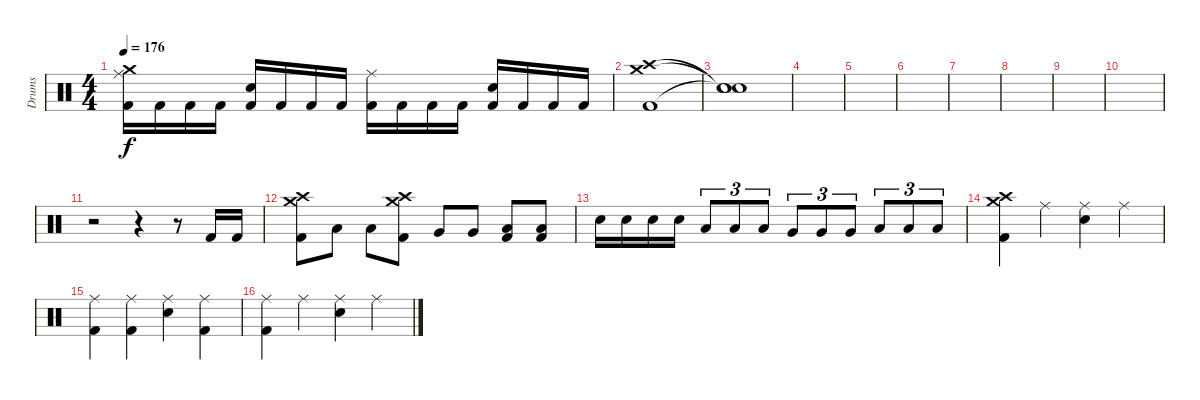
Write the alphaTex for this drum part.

\track ("Drums" "Drums") {instrument percussion}
\staff {score}
\articulation defaults
\ts (4 4)
\tempo 176
\clef neutral
\ks c
("Ride (middle)" "Crash medium (hit)" "Kick (hit) 2").16{dy f} "Kick (hit) 2".16 "Kick (hit) 2".16 "Kick (hit) 2".16 ("Snare (hit) 2" "Kick (hit) 2").16 "Kick (hit) 2".16 "Kick (hit) 2".16 "Kick (hit) 2".16 ("Ride (middle)" "Kick (hit) 2").16 "Kick (hit) 2".16 "Kick (hit) 2".16 "Kick (hit) 2".16 ("Snare (hit) 2" "Kick (hit) 2").16 "Kick (hit) 2".16 "Kick (hit) 2".16 "Kick (hit) 2".16 |
("Crash high (hit)" "Crash medium (hit)" "Kick (hit) 2").1 |
("Snare (hit)"{t} "Snare (hit)"{t} "Snare (hit)"{t}).1 |
|
|
|
|
|
|
|
r.2 r.4 r.8 "Kick (hit) 2".16 "Kick (hit) 2".16 |
("Crash high (hit)" "Crash medium (hit)" "Kick (hit) 2").8 "Low Tom (hit)".8 "Low Tom (hit)".8 ("Crash high (hit)" "Crash medium (hit)" "Kick (hit) 2").8 "Very Low Tom (hit)".8 "Very Low Tom (hit)".8 ("Low Floor Tom (hit)" "Kick (hit) 2").8 ("Low Floor Tom (hit)" "Kick (hit) 2").8 |
"Snare (hit) 2".16 "Snare (hit) 2".16 "Snare (hit) 2".16 "Snare (hit) 2".16 "Low Tom (hit)".8{tu (3 2)} "Low Tom (hit)".8{tu (3 2)} "Low Tom (hit)".8{tu (3 2)} "Very Low Tom (hit)".8{tu (3 2)} "Very Low Tom (hit)".8{tu (3 2)} "Very Low Tom (hit)".8{tu (3 2)} "Low Floor Tom (hit)".8{tu (3 2)} "Low Floor Tom (hit)".8{tu (3 2)} "Low Floor Tom (hit)".8{tu (3 2)} |
("Crash medium (hit)" "Crash high (hit)" "Kick (hit) 2").4 "Ride (middle)".4 ("Ride (middle)" "Snare (hit) 2").4 "Ride (middle)".4 |
("Ride (middle)" "Kick (hit) 2").4 ("Ride (middle)" "Kick (hit) 2").4 ("Ride (middle)" "Snare (hit) 2").4 ("Ride (middle)" "Kick (hit) 2").4 |
("Ride (middle)" "Kick (hit) 2").4 "Ride (middle)".4 ("Ride (middle)" "Snare (hit) 2").4 "Ride (middle)".4
